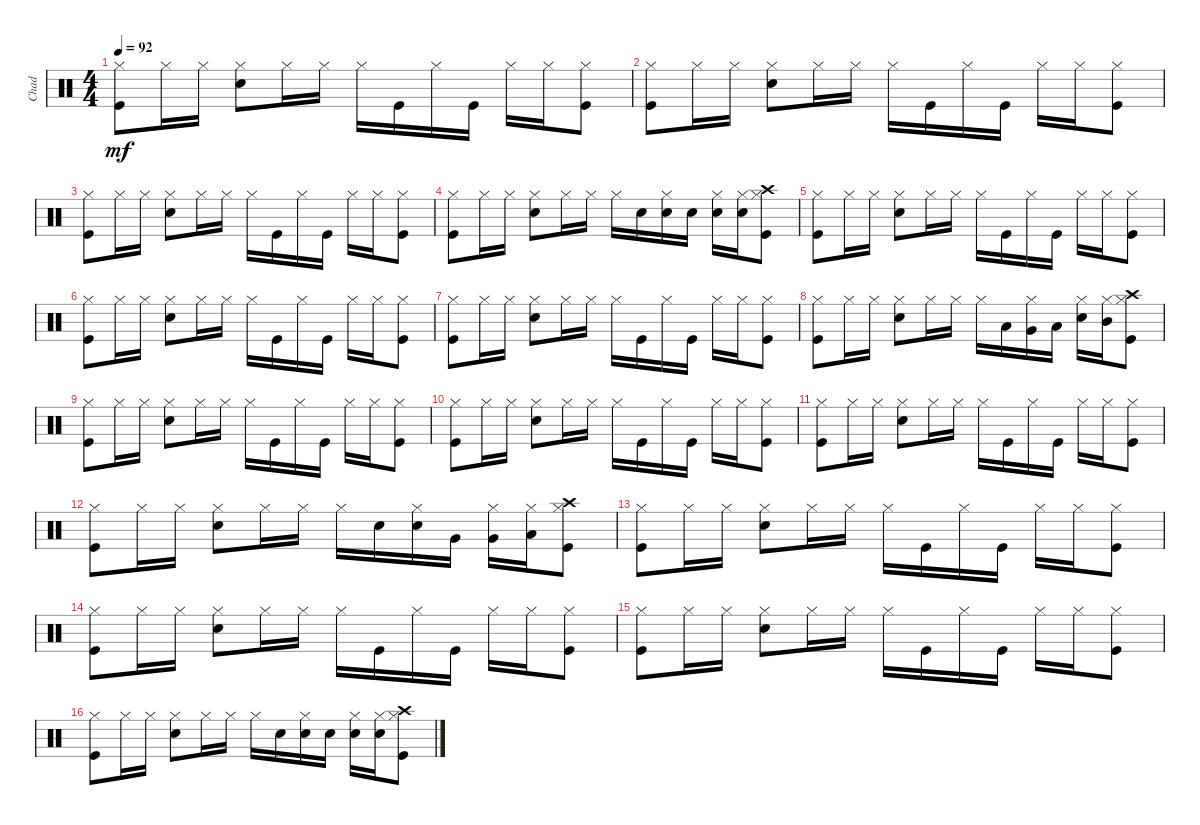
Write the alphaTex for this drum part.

\track ("Chad" "Chad") {instrument percussion}
\staff {score}
\articulation defaults
\ts (4 4)
\tempo 92
\clef neutral
\ks c
("Kick (hit)" "Hi-Hat (closed)").8{dy mf} "Hi-Hat (closed)".16 "Hi-Hat (closed)".16 ("Snare (hit) 2" "Hi-Hat (closed)").8 "Hi-Hat (closed)".16 "Hi-Hat (closed)".16 "Hi-Hat (closed)".16 "Kick (hit)".16 "Hi-Hat (closed)".16 "Kick (hit)".16 "Hi-Hat (closed)".16 "Hi-Hat (closed)".16 ("Hi-Hat (closed)" "Kick (hit)").8 |
("Kick (hit)" "Hi-Hat (closed)").8 "Hi-Hat (closed)".16 "Hi-Hat (closed)".16 ("Snare (hit) 2" "Hi-Hat (closed)").8 "Hi-Hat (closed)".16 "Hi-Hat (closed)".16 "Hi-Hat (closed)".16 "Kick (hit)".16 "Hi-Hat (closed)".16 "Kick (hit)".16 "Hi-Hat (closed)".16 "Hi-Hat (closed)".16 ("Hi-Hat (closed)" "Kick (hit)").8 |
("Kick (hit)" "Hi-Hat (closed)").8 "Hi-Hat (closed)".16 "Hi-Hat (closed)".16 ("Snare (hit) 2" "Hi-Hat (closed)").8 "Hi-Hat (closed)".16 "Hi-Hat (closed)".16 "Hi-Hat (closed)".16 "Kick (hit)".16 "Hi-Hat (closed)".16 "Kick (hit)".16 "Hi-Hat (closed)".16 "Hi-Hat (closed)".16 ("Hi-Hat (closed)" "Kick (hit)").8 |
("Kick (hit)" "Hi-Hat (closed)").8 "Hi-Hat (closed)".16 "Hi-Hat (closed)".16 ("Snare (hit) 2" "Hi-Hat (closed)").8 "Hi-Hat (closed)".16 "Hi-Hat (closed)".16 "Hi-Hat (closed)".16 "Snare (hit) 2".16 ("Hi-Hat (closed)" "Snare (hit) 2").16 "Snare (hit) 2".16 ("Hi-Hat (closed)" "Snare (hit) 2").16 ("Hi-Hat (closed)" "Snare (hit) 2").16 ("Hi-Hat (closed)" "Kick (hit)" "Crash high (hit)").8 |
("Kick (hit)" "Hi-Hat (closed)").8 "Hi-Hat (closed)".16 "Hi-Hat (closed)".16 ("Snare (hit) 2" "Hi-Hat (closed)").8 "Hi-Hat (closed)".16 "Hi-Hat (closed)".16 "Hi-Hat (closed)".16 "Kick (hit)".16 "Hi-Hat (closed)".16 "Kick (hit)".16 "Hi-Hat (closed)".16 "Hi-Hat (closed)".16 ("Hi-Hat (closed)" "Kick (hit)").8 |
("Kick (hit)" "Hi-Hat (closed)").8 "Hi-Hat (closed)".16 "Hi-Hat (closed)".16 ("Snare (hit) 2" "Hi-Hat (closed)").8 "Hi-Hat (closed)".16 "Hi-Hat (closed)".16 "Hi-Hat (closed)".16 "Kick (hit)".16 "Hi-Hat (closed)".16 "Kick (hit)".16 "Hi-Hat (closed)".16 "Hi-Hat (closed)".16 ("Hi-Hat (closed)" "Kick (hit)").8 |
("Kick (hit)" "Hi-Hat (closed)").8 "Hi-Hat (closed)".16 "Hi-Hat (closed)".16 ("Snare (hit) 2" "Hi-Hat (closed)").8 "Hi-Hat (closed)".16 "Hi-Hat (closed)".16 "Hi-Hat (closed)".16 "Kick (hit)".16 "Hi-Hat (closed)".16 "Kick (hit)".16 "Hi-Hat (closed)".16 "Hi-Hat (closed)".16 ("Hi-Hat (closed)" "Kick (hit)").8 |
("Kick (hit)" "Hi-Hat (closed)").8 "Hi-Hat (closed)".16 "Hi-Hat (closed)".16 ("Snare (hit) 2" "Hi-Hat (closed)").8 "Hi-Hat (closed)".16 "Hi-Hat (closed)".16 "Hi-Hat (closed)".16 "Low Floor Tom (hit)".16 ("Hi-Hat (closed)" "Very Low Tom (hit)").16 "Low Tom (hit)".16 ("Hi-Hat (closed)" "Snare (hit) 2").16 ("Hi-Hat (closed)" "Mid Tom (hit)").16 ("Hi-Hat (closed)" "Kick (hit)" "Crash high (hit)").8 |
("Kick (hit)" "Hi-Hat (closed)").8 "Hi-Hat (closed)".16 "Hi-Hat (closed)".16 ("Snare (hit) 2" "Hi-Hat (closed)").8 "Hi-Hat (closed)".16 "Hi-Hat (closed)".16 "Hi-Hat (closed)".16 "Kick (hit)".16 "Hi-Hat (closed)".16 "Kick (hit)".16 "Hi-Hat (closed)".16 "Hi-Hat (closed)".16 ("Hi-Hat (closed)" "Kick (hit)").8 |
("Kick (hit)" "Hi-Hat (closed)").8 "Hi-Hat (closed)".16 "Hi-Hat (closed)".16 ("Snare (hit) 2" "Hi-Hat (closed)").8 "Hi-Hat (closed)".16 "Hi-Hat (closed)".16 "Hi-Hat (closed)".16 "Kick (hit)".16 "Hi-Hat (closed)".16 "Kick (hit)".16 "Hi-Hat (closed)".16 "Hi-Hat (closed)".16 ("Hi-Hat (closed)" "Kick (hit)").8 |
("Kick (hit)" "Hi-Hat (closed)").8 "Hi-Hat (closed)".16 "Hi-Hat (closed)".16 ("Snare (hit) 2" "Hi-Hat (closed)").8 "Hi-Hat (closed)".16 "Hi-Hat (closed)".16 "Hi-Hat (closed)".16 "Kick (hit)".16 "Hi-Hat (closed)".16 "Kick (hit)".16 "Hi-Hat (closed)".16 "Hi-Hat (closed)".16 ("Hi-Hat (closed)" "Kick (hit)").8 |
("Kick (hit)" "Hi-Hat (closed)").8 "Hi-Hat (closed)".16 "Hi-Hat (closed)".16 ("Snare (hit) 2" "Hi-Hat (closed)").8 "Hi-Hat (closed)".16 "Hi-Hat (closed)".16 "Hi-Hat (closed)".16 "Snare (hit) 2".16 ("Hi-Hat (closed)" "Snare (hit) 2").16 "Very Low Tom (hit)".16 ("Hi-Hat (closed)" "Very Low Tom (hit)").16 ("Hi-Hat (closed)" "Low Tom (hit)").16 ("Hi-Hat (closed)" "Kick (hit)" "Crash high (hit)").8 |
("Kick (hit)" "Hi-Hat (closed)").8 "Hi-Hat (closed)".16 "Hi-Hat (closed)".16 ("Snare (hit) 2" "Hi-Hat (closed)").8 "Hi-Hat (closed)".16 "Hi-Hat (closed)".16 "Hi-Hat (closed)".16 "Kick (hit)".16 "Hi-Hat (closed)".16 "Kick (hit)".16 "Hi-Hat (closed)".16 "Hi-Hat (closed)".16 ("Hi-Hat (closed)" "Kick (hit)").8 |
("Kick (hit)" "Hi-Hat (closed)").8 "Hi-Hat (closed)".16 "Hi-Hat (closed)".16 ("Snare (hit) 2" "Hi-Hat (closed)").8 "Hi-Hat (closed)".16 "Hi-Hat (closed)".16 "Hi-Hat (closed)".16 "Kick (hit)".16 "Hi-Hat (closed)".16 "Kick (hit)".16 "Hi-Hat (closed)".16 "Hi-Hat (closed)".16 ("Hi-Hat (closed)" "Kick (hit)").8 |
("Kick (hit)" "Hi-Hat (closed)").8 "Hi-Hat (closed)".16 "Hi-Hat (closed)".16 ("Snare (hit) 2" "Hi-Hat (closed)").8 "Hi-Hat (closed)".16 "Hi-Hat (closed)".16 "Hi-Hat (closed)".16 "Kick (hit)".16 "Hi-Hat (closed)".16 "Kick (hit)".16 "Hi-Hat (closed)".16 "Hi-Hat (closed)".16 ("Hi-Hat (closed)" "Kick (hit)").8 |
("Kick (hit)" "Hi-Hat (closed)").8 "Hi-Hat (closed)".16 "Hi-Hat (closed)".16 ("Snare (hit) 2" "Hi-Hat (closed)").8 "Hi-Hat (closed)".16 "Hi-Hat (closed)".16 "Hi-Hat (closed)".16 "Snare (hit) 2".16 ("Hi-Hat (closed)" "Snare (hit) 2").16 "Snare (hit) 2".16 ("Hi-Hat (closed)" "Snare (hit) 2").16 ("Hi-Hat (closed)" "Snare (hit) 2").16 ("Hi-Hat (closed)" "Kick (hit)" "Crash high (hit)").8
